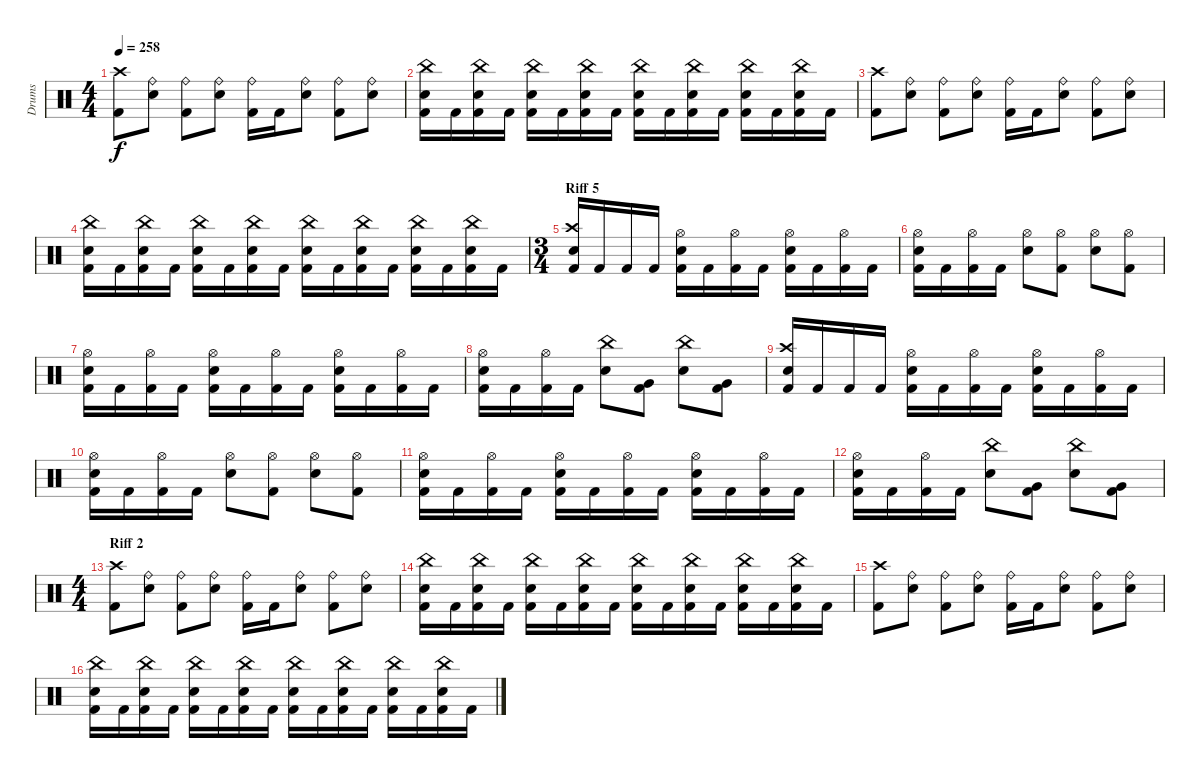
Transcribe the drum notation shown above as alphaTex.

\track ("Drums" "Drums") {instrument percussion}
\staff {score}
\articulation defaults
\ts (4 4)
\tempo 258
\clef neutral
\ks c
("Kick (hit) 2" "Crash high (hit)").8{dy f} ("Snare (hit) 2" "Ride (bell)").8 ("Kick (hit) 2" "Ride (bell)").8 ("Snare (hit) 2" "Ride (bell)").8 ("Kick (hit) 2" "Ride (bell)").16 "Kick (hit) 2".16 ("Snare (hit) 2" "Ride (bell)").8 ("Kick (hit) 2" "Ride (bell)").8 ("Snare (hit) 2" "Ride (bell)").8 |
("Kick (hit) 2" "Snare (hit) 2" "China (hit)").16 "Kick (hit) 2".16 ("Kick (hit) 2" "Snare (hit) 2" "China (hit)").16 "Kick (hit) 2".16 ("Kick (hit) 2" "Snare (hit) 2" "China (hit)").16 "Kick (hit) 2".16 ("Kick (hit) 2" "Snare (hit) 2" "China (hit)").16 "Kick (hit) 2".16 ("Kick (hit) 2" "Snare (hit) 2" "China (hit)").16 "Kick (hit) 2".16 ("Kick (hit) 2" "Snare (hit) 2" "China (hit)").16 "Kick (hit) 2".16 ("Kick (hit) 2" "Snare (hit) 2" "China (hit)").16 "Kick (hit) 2".16 ("Kick (hit) 2" "Snare (hit) 2" "China (hit)").16 "Kick (hit) 2".16 |
("Kick (hit) 2" "Crash high (hit)").8 ("Snare (hit) 2" "Ride (bell)").8 ("Kick (hit) 2" "Ride (bell)").8 ("Snare (hit) 2" "Ride (bell)").8 ("Kick (hit) 2" "Ride (bell)").16 "Kick (hit) 2".16 ("Snare (hit) 2" "Ride (bell)").8 ("Kick (hit) 2" "Ride (bell)").8 ("Snare (hit) 2" "Ride (bell)").8 |
("Kick (hit) 2" "Snare (hit) 2" "China (hit)").16 "Kick (hit) 2".16 ("Kick (hit) 2" "Snare (hit) 2" "China (hit)").16 "Kick (hit) 2".16 ("Kick (hit) 2" "Snare (hit) 2" "China (hit)").16 "Kick (hit) 2".16 ("Kick (hit) 2" "Snare (hit) 2" "China (hit)").16 "Kick (hit) 2".16 ("Kick (hit) 2" "Snare (hit) 2" "China (hit)").16 "Kick (hit) 2".16 ("Kick (hit) 2" "Snare (hit) 2" "China (hit)").16 "Kick (hit) 2".16 ("Kick (hit) 2" "Snare (hit) 2" "China (hit)").16 "Kick (hit) 2".16 ("Kick (hit) 2" "Snare (hit) 2" "China (hit)").16 "Kick (hit) 2".16 |
\ts (3 4)
\section ("" "Riff 5")
("Kick (hit) 2" "Snare (hit) 2" "Crash high (hit)").16 "Kick (hit) 2".16 "Kick (hit) 2".16 "Kick (hit) 2".16 ("Kick (hit) 2" "Snare (hit) 2" "Hi-Hat (open)").16 "Kick (hit) 2".16 ("Kick (hit) 2" "Hi-Hat (open)").16 "Kick (hit) 2".16 ("Kick (hit) 2" "Snare (hit) 2" "Hi-Hat (open)").16 "Kick (hit) 2".16 ("Kick (hit) 2" "Hi-Hat (open)").16 "Kick (hit) 2".16 |
("Kick (hit) 2" "Snare (hit) 2" "Hi-Hat (open)").16 "Kick (hit) 2".16 ("Kick (hit) 2" "Hi-Hat (open)").16 "Kick (hit) 2".16 ("Snare (hit) 2" "Hi-Hat (open)").8 ("Kick (hit) 2" "Hi-Hat (open)").8 ("Snare (hit) 2" "Hi-Hat (open)").8 ("Kick (hit) 2" "Hi-Hat (open)").8 |
("Kick (hit) 2" "Snare (hit) 2" "Hi-Hat (open)").16 "Kick (hit) 2".16 ("Kick (hit) 2" "Hi-Hat (open)").16 "Kick (hit) 2".16 ("Kick (hit) 2" "Snare (hit) 2" "Hi-Hat (open)").16 "Kick (hit) 2".16 ("Kick (hit) 2" "Hi-Hat (open)").16 "Kick (hit) 2".16 ("Kick (hit) 2" "Snare (hit) 2" "Hi-Hat (open)").16 "Kick (hit) 2".16 ("Kick (hit) 2" "Hi-Hat (open)").16 "Kick (hit) 2".16 |
("Kick (hit) 2" "Snare (hit) 2" "Hi-Hat (open)").16 "Kick (hit) 2".16 ("Kick (hit) 2" "Hi-Hat (open)").16 "Kick (hit) 2".16 ("Snare (hit) 2" "China (hit)").8 ("Kick (hit) 2" "Very Low Tom (hit)").8 ("Snare (hit) 2" "China (hit)").8 ("Kick (hit) 2" "Very Low Tom (hit)").8 |
("Kick (hit) 2" "Snare (hit) 2" "Crash high (hit)").16 "Kick (hit) 2".16 "Kick (hit) 2".16 "Kick (hit) 2".16 ("Kick (hit) 2" "Snare (hit) 2" "Hi-Hat (open)").16 "Kick (hit) 2".16 ("Kick (hit) 2" "Hi-Hat (open)").16 "Kick (hit) 2".16 ("Kick (hit) 2" "Snare (hit) 2" "Hi-Hat (open)").16 "Kick (hit) 2".16 ("Kick (hit) 2" "Hi-Hat (open)").16 "Kick (hit) 2".16 |
("Kick (hit) 2" "Snare (hit) 2" "Hi-Hat (open)").16 "Kick (hit) 2".16 ("Kick (hit) 2" "Hi-Hat (open)").16 "Kick (hit) 2".16 ("Snare (hit) 2" "Hi-Hat (open)").8 ("Kick (hit) 2" "Hi-Hat (open)").8 ("Snare (hit) 2" "Hi-Hat (open)").8 ("Kick (hit) 2" "Hi-Hat (open)").8 |
("Kick (hit) 2" "Snare (hit) 2" "Hi-Hat (open)").16 "Kick (hit) 2".16 ("Kick (hit) 2" "Hi-Hat (open)").16 "Kick (hit) 2".16 ("Kick (hit) 2" "Snare (hit) 2" "Hi-Hat (open)").16 "Kick (hit) 2".16 ("Kick (hit) 2" "Hi-Hat (open)").16 "Kick (hit) 2".16 ("Kick (hit) 2" "Snare (hit) 2" "Hi-Hat (open)").16 "Kick (hit) 2".16 ("Kick (hit) 2" "Hi-Hat (open)").16 "Kick (hit) 2".16 |
("Kick (hit) 2" "Snare (hit) 2" "Hi-Hat (open)").16 "Kick (hit) 2".16 ("Kick (hit) 2" "Hi-Hat (open)").16 "Kick (hit) 2".16 ("Snare (hit) 2" "China (hit)").8 ("Kick (hit) 2" "Very Low Tom (hit)").8 ("Snare (hit) 2" "China (hit)").8 ("Kick (hit) 2" "Very Low Tom (hit)").8 |
\ts (4 4)
\section ("" "Riff 2")
("Kick (hit) 2" "Crash high (hit)").8 ("Snare (hit) 2" "Ride (bell)").8 ("Kick (hit) 2" "Ride (bell)").8 ("Snare (hit) 2" "Ride (bell)").8 ("Kick (hit) 2" "Ride (bell)").16 "Kick (hit) 2".16 ("Snare (hit) 2" "Ride (bell)").8 ("Kick (hit) 2" "Ride (bell)").8 ("Snare (hit) 2" "Ride (bell)").8 |
("Kick (hit) 2" "Snare (hit) 2" "China (hit)").16 "Kick (hit) 2".16 ("Kick (hit) 2" "Snare (hit) 2" "China (hit)").16 "Kick (hit) 2".16 ("Kick (hit) 2" "Snare (hit) 2" "China (hit)").16 "Kick (hit) 2".16 ("Kick (hit) 2" "Snare (hit) 2" "China (hit)").16 "Kick (hit) 2".16 ("Kick (hit) 2" "Snare (hit) 2" "China (hit)").16 "Kick (hit) 2".16 ("Kick (hit) 2" "Snare (hit) 2" "China (hit)").16 "Kick (hit) 2".16 ("Kick (hit) 2" "Snare (hit) 2" "China (hit)").16 "Kick (hit) 2".16 ("Kick (hit) 2" "Snare (hit) 2" "China (hit)").16 "Kick (hit) 2".16 |
("Kick (hit) 2" "Crash high (hit)").8 ("Snare (hit) 2" "Ride (bell)").8 ("Kick (hit) 2" "Ride (bell)").8 ("Snare (hit) 2" "Ride (bell)").8 ("Kick (hit) 2" "Ride (bell)").16 "Kick (hit) 2".16 ("Snare (hit) 2" "Ride (bell)").8 ("Kick (hit) 2" "Ride (bell)").8 ("Snare (hit) 2" "Ride (bell)").8 |
("Kick (hit) 2" "Snare (hit) 2" "China (hit)").16 "Kick (hit) 2".16 ("Kick (hit) 2" "Snare (hit) 2" "China (hit)").16 "Kick (hit) 2".16 ("Kick (hit) 2" "Snare (hit) 2" "China (hit)").16 "Kick (hit) 2".16 ("Kick (hit) 2" "Snare (hit) 2" "China (hit)").16 "Kick (hit) 2".16 ("Kick (hit) 2" "Snare (hit) 2" "China (hit)").16 "Kick (hit) 2".16 ("Kick (hit) 2" "Snare (hit) 2" "China (hit)").16 "Kick (hit) 2".16 ("Kick (hit) 2" "Snare (hit) 2" "China (hit)").16 "Kick (hit) 2".16 ("Kick (hit) 2" "Snare (hit) 2" "China (hit)").16 "Kick (hit) 2".16
